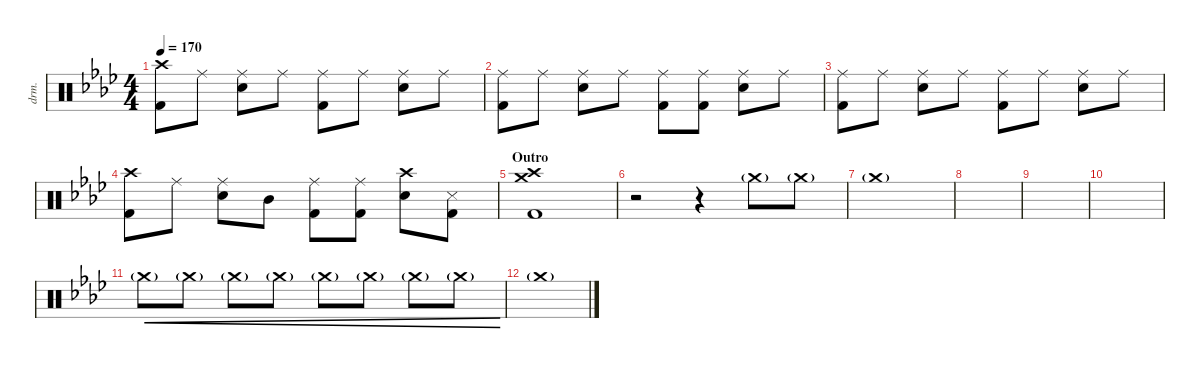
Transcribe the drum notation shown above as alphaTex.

\defaultSystemsLayout 4
\hideDynamics
\bracketExtendMode nobrackets
\otherSystemsTrackNameOrientation horizontal
\track ("Drumkit" "drm.") {instrument percussion}
\staff {score}
\articulation defaults
\ts (4 4)
\tempo 170
\clef neutral
\ks fminor
("Kick (hit) 2"{acc forcenatural} "Crash high (hit)"{acc forcenatural}).8{dy mf beam Down} "Ride (middle)"{acc forcenatural}.8{beam Down} ("Ride (middle)"{acc forcenatural} "Snare (hit) 2"{acc forcenatural}).8{beam Down} "Ride (middle)"{acc forcenatural}.8{beam Down} ("Ride (middle)"{acc forcenatural} "Kick (hit) 2"{acc forcenatural}).8{beam Down} "Ride (middle)"{acc forcenatural}.8{beam Down} ("Ride (middle)"{acc forcenatural} "Snare (hit) 2"{acc forcenatural}).8{beam Down} "Ride (middle)"{acc forcenatural}.8{beam Down} |
("Ride (middle)"{acc forcenatural} "Kick (hit) 2"{acc forcenatural}).8{beam Down} "Ride (middle)"{acc forcenatural}.8{beam Down} ("Ride (middle)"{acc forcenatural} "Snare (hit) 2"{acc forcenatural}).8{beam Down} "Ride (middle)"{acc forcenatural}.8{beam Down} ("Ride (middle)"{acc forcenatural} "Kick (hit) 2"{acc forcenatural}).8{beam Down} ("Ride (middle)"{acc forcenatural} "Kick (hit) 2"{acc forcenatural}).8{beam Down} ("Ride (middle)"{acc forcenatural} "Snare (hit) 2"{acc forcenatural}).8{beam Down} "Ride (middle)"{acc forcenatural}.8{beam Down} |
("Ride (middle)"{acc forcenatural} "Kick (hit) 2"{acc forcenatural}).8{beam Down} "Ride (middle)"{acc forcenatural}.8{beam Down} ("Ride (middle)"{acc forcenatural} "Snare (hit) 2"{acc forcenatural}).8{beam Down} "Ride (middle)"{acc forcenatural}.8{beam Down} ("Ride (middle)"{acc forcenatural} "Kick (hit) 2"{acc forcenatural}).8{beam Down} "Ride (middle)"{acc forcenatural}.8{beam Down} ("Ride (middle)"{acc forcenatural} "Snare (hit) 2"{acc forcenatural}).8{beam Down} "Ride (middle)"{acc forcenatural}.8{beam Down} |
("Crash high (hit)"{acc forcenatural} "Kick (hit) 2"{acc forcenatural}).8{beam Down} "Ride (middle)"{acc forcenatural}.8{beam Down} ("Ride (middle)"{acc forcenatural} "Snare (hit) 2"{acc forcenatural}).8{beam Down} "Mid Tom (hit)"{acc forcenatural}.8{beam Down} ("Ride (middle)"{acc forcenatural} "Kick (hit) 2"{acc forcenatural}).8{beam Down} ("Ride (middle)"{acc forcenatural} "Kick (hit) 2"{acc forcenatural}).8{beam Down} ("Crash high (hit)"{acc forcenatural} "Snare (hit) 2"{acc forcenatural}).8{beam Down} ("Snare (side stick) 3"{acc forcenatural} "Kick (hit) 2"{acc forcenatural}).8{beam Down} |
\section ("" "Outro")
("Kick (hit) 2"{acc forcenatural} "Crash high (hit)"{acc forcenatural} "Crash medium (hit)"{acc forcenatural}).1{beam Down} |
r.2{beam Down} r.4{beam Down} "Crash medium (hit)"{g acc forcenatural}.8{beam Down} "Crash medium (hit)"{g acc forcenatural}.8{beam Down} |
"Crash medium (hit)"{g acc forcenatural}.1{beam Down} |
|
|
|
"Crash medium (hit)"{g acc forcenatural}.8{cre dy mp beam Down} "Crash medium (hit)"{g acc forcenatural}.8{cre beam Down} "Crash medium (hit)"{g acc forcenatural}.8{cre beam Down} "Crash medium (hit)"{g acc forcenatural}.8{cre beam Down} "Crash medium (hit)"{g acc forcenatural}.8{cre beam Down} "Crash medium (hit)"{g acc forcenatural}.8{cre beam Down} "Crash medium (hit)"{g acc forcenatural}.8{cre beam Down} "Crash medium (hit)"{g acc forcenatural}.8{cre beam Down} |
"Crash medium (hit)"{g acc forcenatural}.1{dy mf beam Down}
